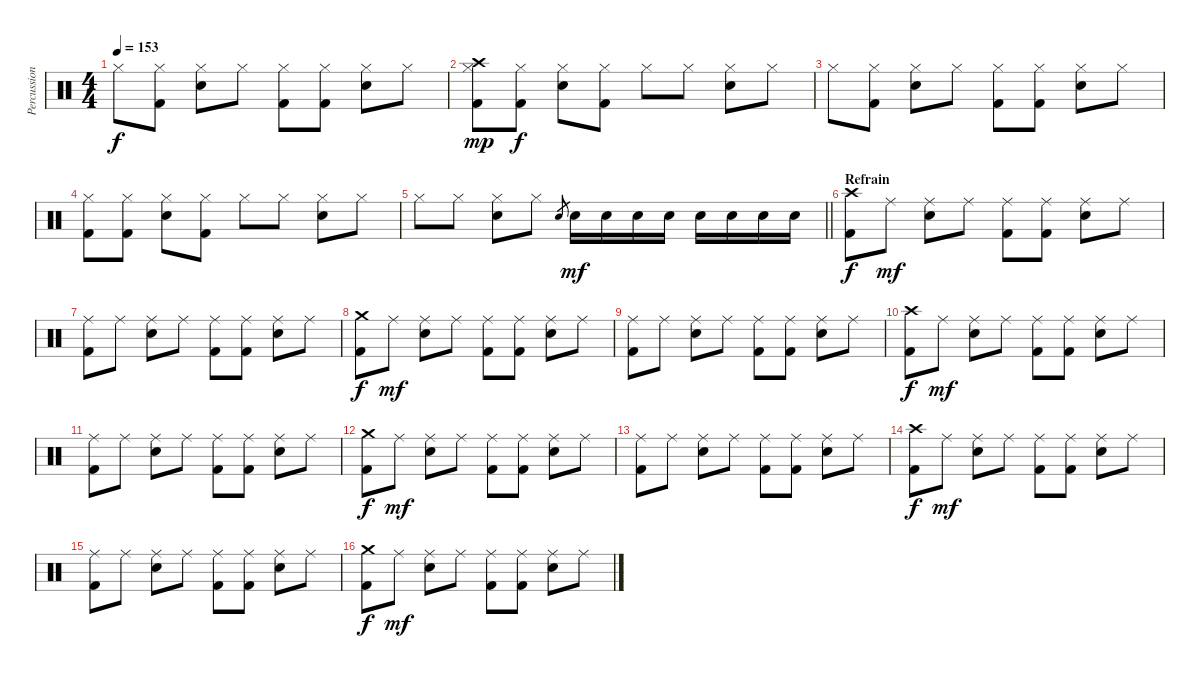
\track ("Percussion" "Percussion") {instrument percussion}
\staff {score}
\articulation defaults
\ts (4 4)
\tempo 153
\clef neutral
\ks c "Hi-Hat (closed)".8{dy f}
("Hi-Hat (closed)" "Kick (hit) 2").8 ("Hi-Hat (closed)" "Electric Snare (hit)").8 "Hi-Hat (closed)".8 ("Hi-Hat (closed)" "Kick (hit) 2").8 ("Hi-Hat (closed)" "Kick (hit) 2").8 ("Hi-Hat (closed)" "Electric Snare (hit)").8 "Hi-Hat (closed)".8 |
("Crash high (hit)" "Hi-Hat (closed)" "Kick (hit) 2").8{dy mp} ("Hi-Hat (closed)" "Kick (hit) 2").8{dy f} ("Hi-Hat (closed)" "Electric Snare (hit)").8 ("Hi-Hat (closed)" "Kick (hit) 2").8 "Hi-Hat (closed)".8 "Hi-Hat (closed)".8 ("Hi-Hat (closed)" "Electric Snare (hit)").8 "Hi-Hat (closed)".8 |
"Hi-Hat (closed)".8 ("Hi-Hat (closed)" "Kick (hit) 2").8 ("Hi-Hat (closed)" "Electric Snare (hit)").8 "Hi-Hat (closed)".8 ("Hi-Hat (closed)" "Kick (hit) 2").8 ("Hi-Hat (closed)" "Kick (hit) 2").8 ("Hi-Hat (closed)" "Electric Snare (hit)").8 "Hi-Hat (closed)".8 |
("Hi-Hat (closed)" "Kick (hit) 2").8 ("Hi-Hat (closed)" "Kick (hit) 2").8 ("Hi-Hat (closed)" "Electric Snare (hit)").8 ("Hi-Hat (closed)" "Kick (hit) 2").8 "Hi-Hat (closed)".8 "Hi-Hat (closed)".8 ("Hi-Hat (closed)" "Electric Snare (hit)").8 "Hi-Hat (closed)".8 |
\barLineRight lightlight "Hi-Hat (closed)".8 "Hi-Hat (closed)".8
("Hi-Hat (closed)" "Electric Snare (hit)").8 "Hi-Hat (closed)".8 "Electric Snare (hit)".8{gr} "Electric Snare (hit)".16{dy mf} "Electric Snare (hit)".16 "Electric Snare (hit)".16 "Electric Snare (hit)".16 "Snare (hit) 2".16 "Snare (hit) 2".16 "Snare (hit) 2".16 "Snare (hit) 2".16 |
\section ("" "Refrain")
("Crash high (hit)" "Kick (hit) 2").8{dy f} "Ride (middle)".8{dy mf} ("Ride (middle)" "Electric Snare (hit)").8 "Ride (middle)".8 ("Ride (middle)" "Kick (hit) 2").8 ("Ride (middle)" "Kick (hit) 2").8 ("Ride (middle)" "Electric Snare (hit)").8 "Ride (middle)".8 |
("Ride (middle)" "Kick (hit) 2").8 "Ride (middle)".8 ("Ride (middle)" "Electric Snare (hit)").8 "Ride (middle)".8 ("Ride (middle)" "Kick (hit) 2").8 ("Ride (middle)" "Kick (hit) 2").8 ("Ride (middle)" "Electric Snare (hit)").8 "Ride (middle)".8 |
("Crash medium (hit)" "Kick (hit) 2").8{dy f} "Ride (middle)".8{dy mf} ("Ride (middle)" "Electric Snare (hit)").8 "Ride (middle)".8 ("Ride (middle)" "Kick (hit) 2").8 ("Ride (middle)" "Kick (hit) 2").8 ("Ride (middle)" "Electric Snare (hit)").8 "Ride (middle)".8 |
("Ride (middle)" "Kick (hit) 2").8 "Ride (middle)".8 ("Ride (middle)" "Electric Snare (hit)").8 "Ride (middle)".8 ("Ride (middle)" "Kick (hit) 2").8 ("Ride (middle)" "Kick (hit) 2").8 ("Ride (middle)" "Electric Snare (hit)").8 "Ride (middle)".8 |
("Crash high (hit)" "Kick (hit) 2").8{dy f} "Ride (middle)".8{dy mf} ("Ride (middle)" "Electric Snare (hit)").8 "Ride (middle)".8 ("Ride (middle)" "Kick (hit) 2").8 ("Ride (middle)" "Kick (hit) 2").8 ("Ride (middle)" "Electric Snare (hit)").8 "Ride (middle)".8 |
("Ride (middle)" "Kick (hit) 2").8 "Ride (middle)".8 ("Ride (middle)" "Electric Snare (hit)").8 "Ride (middle)".8 ("Ride (middle)" "Kick (hit) 2").8 ("Ride (middle)" "Kick (hit) 2").8 ("Ride (middle)" "Electric Snare (hit)").8 "Ride (middle)".8 |
("Crash medium (hit)" "Kick (hit) 2").8{dy f} "Ride (middle)".8{dy mf} ("Ride (middle)" "Electric Snare (hit)").8 "Ride (middle)".8 ("Ride (middle)" "Kick (hit) 2").8 ("Ride (middle)" "Kick (hit) 2").8 ("Ride (middle)" "Electric Snare (hit)").8 "Ride (middle)".8 |
("Ride (middle)" "Kick (hit) 2").8 "Ride (middle)".8 ("Ride (middle)" "Electric Snare (hit)").8 "Ride (middle)".8 ("Ride (middle)" "Kick (hit) 2").8 ("Ride (middle)" "Kick (hit) 2").8 ("Ride (middle)" "Electric Snare (hit)").8 "Ride (middle)".8 |
("Crash high (hit)" "Kick (hit) 2").8{dy f} "Ride (middle)".8{dy mf} ("Ride (middle)" "Electric Snare (hit)").8 "Ride (middle)".8 ("Ride (middle)" "Kick (hit) 2").8 ("Ride (middle)" "Kick (hit) 2").8 ("Ride (middle)" "Electric Snare (hit)").8 "Ride (middle)".8 |
("Ride (middle)" "Kick (hit) 2").8 "Ride (middle)".8 ("Ride (middle)" "Electric Snare (hit)").8 "Ride (middle)".8 ("Ride (middle)" "Kick (hit) 2").8 ("Ride (middle)" "Kick (hit) 2").8 ("Ride (middle)" "Electric Snare (hit)").8 "Ride (middle)".8 |
("Crash medium (hit)" "Kick (hit) 2").8{dy f} "Ride (middle)".8{dy mf} ("Ride (middle)" "Electric Snare (hit)").8 "Ride (middle)".8 ("Ride (middle)" "Kick (hit) 2").8 ("Ride (middle)" "Kick (hit) 2").8 ("Ride (middle)" "Electric Snare (hit)").8 "Ride (middle)".8
